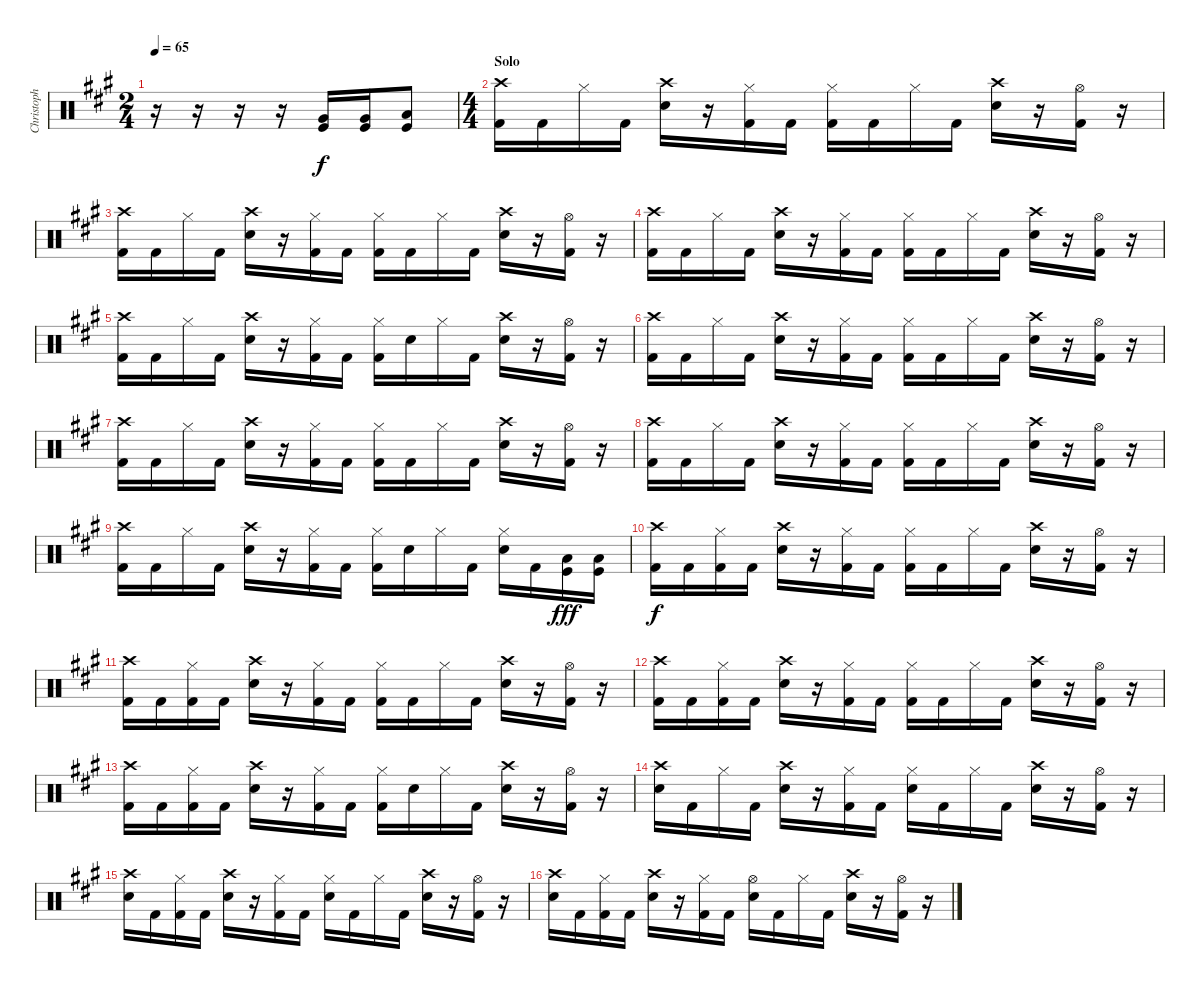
\track ("Christoph Doom Schneider - Drums" "Christoph ") {instrument percussion}
\staff {score}
\articulation defaults
\ts (2 4)
\tempo 65
\clef neutral
\ks a
r.16{dy f} r.16 r.16 r.16 ("Very Low Tom (hit)" "Kick (hit)").16 ("Very Low Tom (hit)" "Kick (hit)").16 ("Low Floor Tom (hit)" "Kick (hit)").8 |
\ts (4 4)
\section ("" "Solo")
("Crash high (hit)" "Kick (hit) 2").16 "Kick (hit) 2".16 "Hi-Hat (closed)".16 "Kick (hit) 2".16 ("Crash high (hit)" "Electric Snare (hit)").16 r.16 ("Hi-Hat (closed)" "Kick (hit) 2").16 "Kick (hit) 2".16 ("Hi-Hat (closed)" "Kick (hit) 2").16 "Kick (hit) 2".16 "Hi-Hat (closed)".16 "Kick (hit) 2".16 ("Crash high (hit)" "Electric Snare (hit)").16 r.16 ("Hi-Hat (open)" "Kick (hit) 2").16 r.16 |
("Crash high (hit)" "Kick (hit) 2").16 "Kick (hit) 2".16 "Hi-Hat (closed)".16 "Kick (hit) 2".16 ("Crash high (hit)" "Electric Snare (hit)").16 r.16 ("Hi-Hat (closed)" "Kick (hit) 2").16 "Kick (hit) 2".16 ("Hi-Hat (closed)" "Kick (hit) 2").16 "Kick (hit) 2".16 "Hi-Hat (closed)".16 "Kick (hit) 2".16 ("Crash high (hit)" "Electric Snare (hit)").16 r.16 ("Hi-Hat (open)" "Kick (hit) 2").16 r.16 |
("Crash high (hit)" "Kick (hit) 2").16 "Kick (hit) 2".16 "Hi-Hat (closed)".16 "Kick (hit) 2".16 ("Crash high (hit)" "Electric Snare (hit)").16 r.16 ("Hi-Hat (closed)" "Kick (hit) 2").16 "Kick (hit) 2".16 ("Hi-Hat (closed)" "Kick (hit) 2").16 "Kick (hit) 2".16 "Hi-Hat (closed)".16 "Kick (hit) 2".16 ("Crash high (hit)" "Electric Snare (hit)").16 r.16 ("Hi-Hat (open)" "Kick (hit) 2").16 r.16 |
("Crash high (hit)" "Kick (hit) 2").16 "Kick (hit) 2".16 "Hi-Hat (closed)".16 "Kick (hit) 2".16 ("Crash high (hit)" "Electric Snare (hit)").16 r.16 ("Hi-Hat (closed)" "Kick (hit) 2").16 "Kick (hit) 2".16 ("Hi-Hat (closed)" "Kick (hit) 2").16 "Electric Snare (hit)".16 "Hi-Hat (closed)".16 "Kick (hit) 2"{tr (36 64)}.16 ("Crash high (hit)" "Electric Snare (hit)").16 r.16 ("Hi-Hat (open)" "Kick (hit) 2").16 r.16 |
("Crash high (hit)" "Kick (hit) 2").16 "Kick (hit) 2".16 "Hi-Hat (closed)".16 "Kick (hit) 2".16 ("Crash high (hit)" "Electric Snare (hit)").16 r.16 ("Hi-Hat (closed)" "Kick (hit) 2").16 "Kick (hit) 2".16 ("Hi-Hat (closed)" "Kick (hit) 2").16 "Kick (hit) 2".16 "Hi-Hat (closed)".16 "Kick (hit) 2".16 ("Crash high (hit)" "Electric Snare (hit)").16 r.16 ("Hi-Hat (open)" "Kick (hit) 2").16 r.16 |
("Crash high (hit)" "Kick (hit) 2").16 "Kick (hit) 2".16 "Hi-Hat (closed)".16 "Kick (hit) 2".16 ("Crash high (hit)" "Electric Snare (hit)").16 r.16 ("Hi-Hat (closed)" "Kick (hit) 2").16 "Kick (hit) 2".16 ("Hi-Hat (closed)" "Kick (hit) 2").16 "Kick (hit) 2".16 "Hi-Hat (closed)".16 "Kick (hit) 2".16 ("Crash high (hit)" "Electric Snare (hit)").16 r.16 ("Hi-Hat (open)" "Kick (hit) 2").16 r.16 |
("Crash high (hit)" "Kick (hit) 2").16 "Kick (hit) 2".16 "Hi-Hat (closed)".16 "Kick (hit) 2".16 ("Crash high (hit)" "Electric Snare (hit)").16 r.16 ("Hi-Hat (closed)" "Kick (hit) 2").16 "Kick (hit) 2".16 ("Hi-Hat (closed)" "Kick (hit) 2").16 "Kick (hit) 2".16 "Hi-Hat (closed)".16 "Kick (hit) 2".16 ("Crash high (hit)" "Electric Snare (hit)").16 r.16 ("Hi-Hat (open)" "Kick (hit) 2").16 r.16 |
("Crash high (hit)" "Kick (hit) 2").16 "Kick (hit) 2".16 "Hi-Hat (closed)".16 "Kick (hit) 2".16 ("Crash high (hit)" "Electric Snare (hit)").16 r.16 ("Hi-Hat (closed)" "Kick (hit) 2").16 "Kick (hit) 2".16 ("Hi-Hat (closed)" "Kick (hit) 2").16 "Electric Snare (hit)".16 "Hi-Hat (closed)".16 "Kick (hit) 2".16 ("Hi-Hat (closed)" "Electric Snare (hit)").16 "Kick (hit) 2".16 ("Low Floor Tom (hit)" "Kick (hit)").16{dy fff} ("Low Floor Tom (hit)" "Kick (hit)").16 |
("Crash high (hit)" "Kick (hit) 2").16{dy f} "Kick (hit) 2".16 ("Hi-Hat (closed)" "Kick (hit) 2").16 "Kick (hit) 2".16 ("Crash high (hit)" "Electric Snare (hit)").16 r.16 ("Hi-Hat (closed)" "Kick (hit) 2").16 "Kick (hit) 2".16 ("Hi-Hat (closed)" "Kick (hit) 2").16 "Kick (hit) 2".16 "Hi-Hat (closed)".16 "Kick (hit) 2".16 ("Crash high (hit)" "Electric Snare (hit)").16 r.16 ("Hi-Hat (open)" "Kick (hit) 2").16 r.16 |
("Crash high (hit)" "Kick (hit) 2").16 "Kick (hit) 2".16 ("Hi-Hat (closed)" "Kick (hit) 2").16 "Kick (hit) 2".16 ("Crash high (hit)" "Electric Snare (hit)").16 r.16 ("Hi-Hat (closed)" "Kick (hit) 2").16 "Kick (hit) 2".16 ("Hi-Hat (closed)" "Kick (hit) 2").16 "Kick (hit) 2".16 "Hi-Hat (closed)".16 "Kick (hit) 2".16 ("Crash high (hit)" "Electric Snare (hit)").16 r.16 ("Hi-Hat (open)" "Kick (hit) 2").16 r.16 |
("Crash high (hit)" "Kick (hit) 2").16 "Kick (hit) 2".16 ("Hi-Hat (closed)" "Kick (hit) 2").16 "Kick (hit) 2".16 ("Crash high (hit)" "Electric Snare (hit)").16 r.16 ("Hi-Hat (closed)" "Kick (hit) 2").16 "Kick (hit) 2".16 ("Hi-Hat (closed)" "Kick (hit) 2").16 "Kick (hit) 2".16 "Hi-Hat (closed)".16 "Kick (hit) 2".16 ("Crash high (hit)" "Electric Snare (hit)").16 r.16 ("Hi-Hat (open)" "Kick (hit) 2").16 r.16 |
("Crash high (hit)" "Kick (hit) 2").16 "Kick (hit) 2".16 ("Hi-Hat (closed)" "Kick (hit) 2").16 "Kick (hit) 2".16 ("Crash high (hit)" "Electric Snare (hit)").16 r.16 ("Hi-Hat (closed)" "Kick (hit) 2").16 "Kick (hit) 2".16 ("Hi-Hat (closed)" "Kick (hit) 2").16 "Electric Snare (hit)".16 "Hi-Hat (closed)".16 "Kick (hit) 2".16 ("Crash high (hit)" "Electric Snare (hit)").16 r.16 ("Hi-Hat (open)" "Kick (hit) 2").16 r.16 |
("Crash high (hit)" "Electric Snare (hit)").16 "Kick (hit) 2".16 "Hi-Hat (closed)".16 "Kick (hit) 2".16 ("Crash high (hit)" "Electric Snare (hit)").16 r.16 ("Hi-Hat (closed)" "Kick (hit) 2").16 "Kick (hit) 2".16 ("Hi-Hat (closed)" "Electric Snare (hit)").16 "Kick (hit) 2".16 "Hi-Hat (closed)".16 "Kick (hit) 2".16 ("Crash high (hit)" "Electric Snare (hit)").16 r.16 ("Hi-Hat (open)" "Kick (hit) 2").16 r.16 |
("Crash high (hit)" "Electric Snare (hit)").16 "Kick (hit) 2".16 ("Hi-Hat (closed)" "Kick (hit) 2").16 "Kick (hit) 2".16 ("Crash high (hit)" "Electric Snare (hit)").16 r.16 ("Hi-Hat (closed)" "Kick (hit) 2").16 "Kick (hit) 2".16 ("Hi-Hat (closed)" "Electric Snare (hit)").16 "Kick (hit) 2".16 "Hi-Hat (closed)".16 "Kick (hit) 2"{tr (36 64)}.16 ("Crash high (hit)" "Electric Snare (hit)").16 r.16 ("Hi-Hat (open)" "Kick (hit) 2").16 r.16 |
("Crash high (hit)" "Electric Snare (hit)").16 "Kick (hit) 2".16 ("Hi-Hat (closed)" "Kick (hit) 2").16 "Kick (hit) 2".16 ("Crash high (hit)" "Electric Snare (hit)").16 r.16 ("Hi-Hat (closed)" "Kick (hit) 2").16 "Kick (hit) 2".16 ("Hi-Hat (open)" "Electric Snare (hit)").16 "Kick (hit) 2".16 "Hi-Hat (closed)".16 "Kick (hit) 2".16 ("Crash high (hit)" "Electric Snare (hit)").16 r.16 ("Hi-Hat (open)" "Kick (hit) 2").16 r.16
